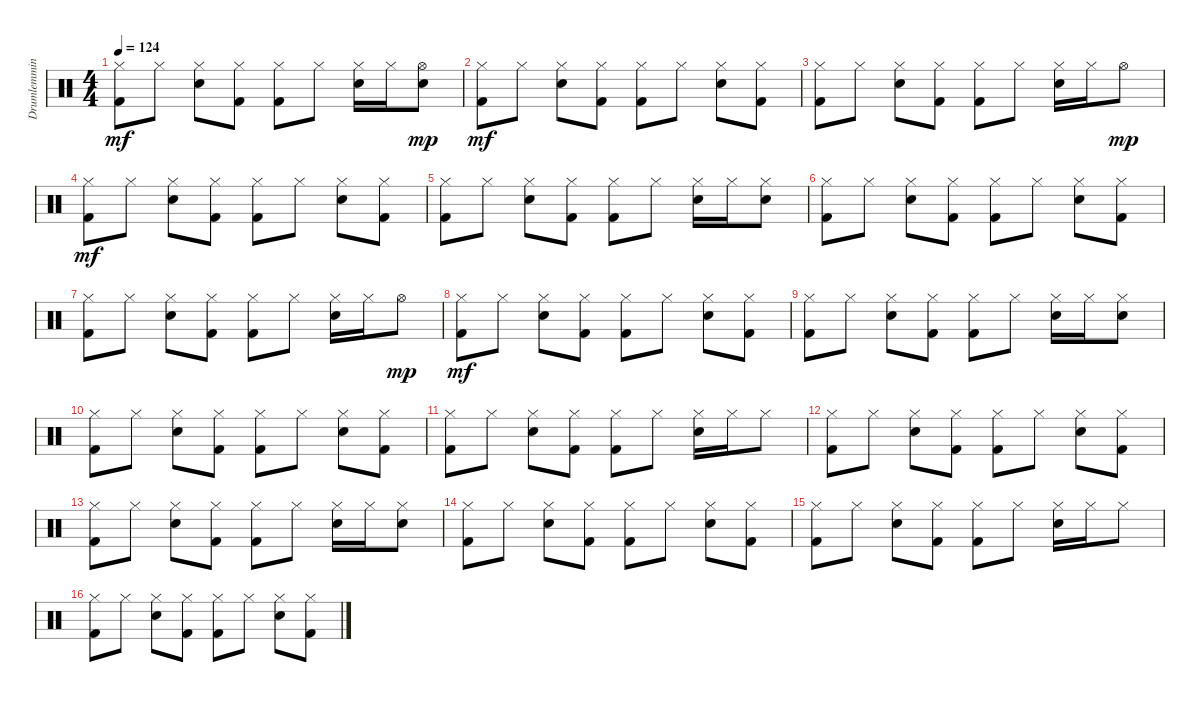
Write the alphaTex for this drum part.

\track ("Drumlemming" "Drumlemmin") {instrument percussion}
\staff {score}
\articulation defaults
\ts (4 4)
\tempo 124
\clef neutral
\ks c
("Hi-Hat (closed)" "Kick (hit) 2").8{dy mf} "Hi-Hat (closed)".8 ("Snare (hit) 2" "Hi-Hat (closed)").8 ("Hi-Hat (closed)" "Kick (hit) 2").8 ("Hi-Hat (closed)" "Kick (hit) 2").8 "Hi-Hat (closed)".8 ("Snare (hit) 2" "Hi-Hat (closed)").16 "Hi-Hat (closed)".16 ("Snare (hit) 2" "Hi-Hat (open)").8{dy mp} |
("Hi-Hat (closed)" "Kick (hit) 2").8{dy mf} "Hi-Hat (closed)".8 ("Snare (hit) 2" "Hi-Hat (closed)").8 ("Hi-Hat (closed)" "Kick (hit) 2").8 ("Hi-Hat (closed)" "Kick (hit) 2").8 "Hi-Hat (closed)".8 ("Snare (hit) 2" "Hi-Hat (closed)").8 ("Hi-Hat (closed)" "Kick (hit) 2").8 |
("Hi-Hat (closed)" "Kick (hit) 2").8 "Hi-Hat (closed)".8 ("Snare (hit) 2" "Hi-Hat (closed)").8 ("Hi-Hat (closed)" "Kick (hit) 2").8 ("Hi-Hat (closed)" "Kick (hit) 2").8 "Hi-Hat (closed)".8 ("Snare (hit) 2" "Hi-Hat (closed)").16 "Hi-Hat (closed)".16 "Hi-Hat (open)".8{dy mp} |
("Hi-Hat (closed)" "Kick (hit) 2").8{dy mf} "Hi-Hat (closed)".8 ("Snare (hit) 2" "Hi-Hat (closed)").8 ("Hi-Hat (closed)" "Kick (hit) 2").8 ("Hi-Hat (closed)" "Kick (hit) 2").8 "Hi-Hat (closed)".8 ("Snare (hit) 2" "Hi-Hat (closed)").8 ("Hi-Hat (closed)" "Kick (hit) 2").8 |
("Hi-Hat (closed)" "Kick (hit) 2").8 "Hi-Hat (closed)".8 ("Snare (hit) 2" "Hi-Hat (closed)").8 ("Hi-Hat (closed)" "Kick (hit) 2").8 ("Hi-Hat (closed)" "Kick (hit) 2").8 "Hi-Hat (closed)".8 ("Snare (hit) 2" "Hi-Hat (closed)").16 "Hi-Hat (closed)".16 ("Snare (hit) 2" "Hi-Hat (closed)").8 |
("Hi-Hat (closed)" "Kick (hit) 2").8 "Hi-Hat (closed)".8 ("Snare (hit) 2" "Hi-Hat (closed)").8 ("Hi-Hat (closed)" "Kick (hit) 2").8 ("Hi-Hat (closed)" "Kick (hit) 2").8 "Hi-Hat (closed)".8 ("Snare (hit) 2" "Hi-Hat (closed)").8 ("Hi-Hat (closed)" "Kick (hit) 2").8 |
("Hi-Hat (closed)" "Kick (hit) 2").8 "Hi-Hat (closed)".8 ("Snare (hit) 2" "Hi-Hat (closed)").8 ("Hi-Hat (closed)" "Kick (hit) 2").8 ("Hi-Hat (closed)" "Kick (hit) 2").8 "Hi-Hat (closed)".8 ("Snare (hit) 2" "Hi-Hat (closed)").16 "Hi-Hat (closed)".16 "Hi-Hat (open)".8{dy mp} |
("Hi-Hat (closed)" "Kick (hit) 2").8{dy mf} "Hi-Hat (closed)".8 ("Snare (hit) 2" "Hi-Hat (closed)").8 ("Hi-Hat (closed)" "Kick (hit) 2").8 ("Hi-Hat (closed)" "Kick (hit) 2").8 "Hi-Hat (closed)".8 ("Snare (hit) 2" "Hi-Hat (closed)").8 ("Hi-Hat (closed)" "Kick (hit) 2").8 |
("Hi-Hat (closed)" "Kick (hit) 2").8 "Hi-Hat (closed)".8 ("Snare (hit) 2" "Hi-Hat (closed)").8 ("Hi-Hat (closed)" "Kick (hit) 2").8 ("Hi-Hat (closed)" "Kick (hit) 2").8 "Hi-Hat (closed)".8 ("Snare (hit) 2" "Hi-Hat (closed)").16 "Hi-Hat (closed)".16 ("Snare (hit) 2" "Hi-Hat (closed)").8 |
("Hi-Hat (closed)" "Kick (hit) 2").8 "Hi-Hat (closed)".8 ("Snare (hit) 2" "Hi-Hat (closed)").8 ("Hi-Hat (closed)" "Kick (hit) 2").8 ("Hi-Hat (closed)" "Kick (hit) 2").8 "Hi-Hat (closed)".8 ("Snare (hit) 2" "Hi-Hat (closed)").8 ("Hi-Hat (closed)" "Kick (hit) 2").8 |
("Hi-Hat (closed)" "Kick (hit) 2").8 "Hi-Hat (closed)".8 ("Snare (hit) 2" "Hi-Hat (closed)").8 ("Hi-Hat (closed)" "Kick (hit) 2").8 ("Hi-Hat (closed)" "Kick (hit) 2").8 "Hi-Hat (closed)".8 ("Snare (hit) 2" "Hi-Hat (closed)").16 "Hi-Hat (closed)".16 "Hi-Hat (closed)".8 |
("Hi-Hat (closed)" "Kick (hit) 2").8 "Hi-Hat (closed)".8 ("Snare (hit) 2" "Hi-Hat (closed)").8 ("Hi-Hat (closed)" "Kick (hit) 2").8 ("Hi-Hat (closed)" "Kick (hit) 2").8 "Hi-Hat (closed)".8 ("Snare (hit) 2" "Hi-Hat (closed)").8 ("Hi-Hat (closed)" "Kick (hit) 2").8 |
("Hi-Hat (closed)" "Kick (hit) 2").8 "Hi-Hat (closed)".8 ("Snare (hit) 2" "Hi-Hat (closed)").8 ("Hi-Hat (closed)" "Kick (hit) 2").8 ("Hi-Hat (closed)" "Kick (hit) 2").8 "Hi-Hat (closed)".8 ("Snare (hit) 2" "Hi-Hat (closed)").16 "Hi-Hat (closed)".16 ("Snare (hit) 2" "Hi-Hat (closed)").8 |
("Hi-Hat (closed)" "Kick (hit) 2").8 "Hi-Hat (closed)".8 ("Snare (hit) 2" "Hi-Hat (closed)").8 ("Hi-Hat (closed)" "Kick (hit) 2").8 ("Hi-Hat (closed)" "Kick (hit) 2").8 "Hi-Hat (closed)".8 ("Snare (hit) 2" "Hi-Hat (closed)").8 ("Hi-Hat (closed)" "Kick (hit) 2").8 |
("Hi-Hat (closed)" "Kick (hit) 2").8 "Hi-Hat (closed)".8 ("Snare (hit) 2" "Hi-Hat (closed)").8 ("Hi-Hat (closed)" "Kick (hit) 2").8 ("Hi-Hat (closed)" "Kick (hit) 2").8 "Hi-Hat (closed)".8 ("Snare (hit) 2" "Hi-Hat (closed)").16 "Hi-Hat (closed)".16 "Hi-Hat (closed)".8 |
("Hi-Hat (closed)" "Kick (hit) 2").8 "Hi-Hat (closed)".8 ("Snare (hit) 2" "Hi-Hat (closed)").8 ("Hi-Hat (closed)" "Kick (hit) 2").8 ("Hi-Hat (closed)" "Kick (hit) 2").8 "Hi-Hat (closed)".8 ("Snare (hit) 2" "Hi-Hat (closed)").8 ("Hi-Hat (closed)" "Kick (hit) 2").8
